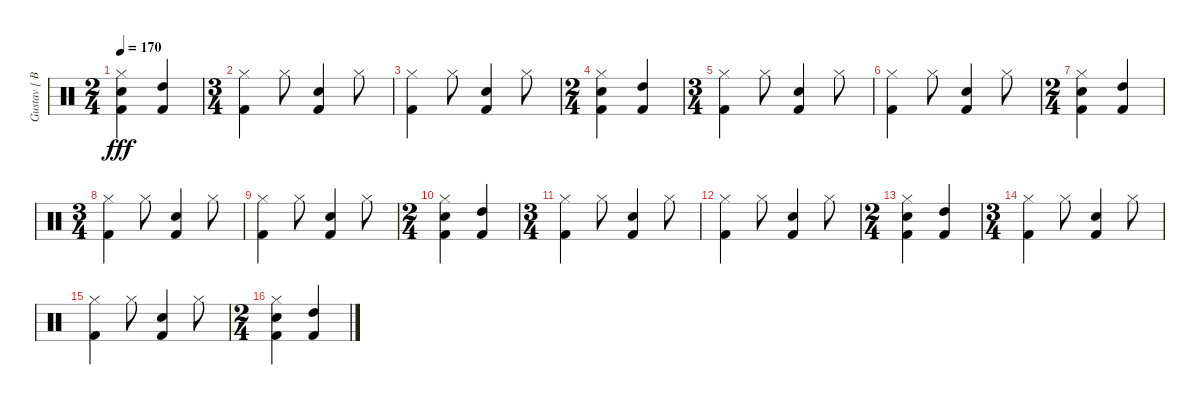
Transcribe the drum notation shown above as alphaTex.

\track ("Gustav [ Batterie ]" "Gustav [ B") {instrument percussion}
\staff {score}
\articulation defaults
\ts (2 4)
\tempo 170
\clef neutral
\ks c
("Hi-Hat (closed)" "Snare (hit) 2" "Kick (hit) 2").4{dy fff} ("High Tom (hit)" "Kick (hit) 2").4 |
\ts (3 4)
("Hi-Hat (closed)" "Kick (hit) 2").4 "Hi-Hat (closed)".8 ("Snare (hit) 2" "Kick (hit) 2").4 "Hi-Hat (closed)".8 |
("Hi-Hat (closed)" "Kick (hit) 2").4 "Hi-Hat (closed)".8 ("Snare (hit) 2" "Kick (hit) 2").4 "Hi-Hat (closed)".8 |
\ts (2 4)
("Hi-Hat (closed)" "Snare (hit) 2" "Kick (hit) 2").4 ("High Tom (hit)" "Kick (hit) 2").4 |
\ts (3 4)
("Hi-Hat (closed)" "Kick (hit) 2").4 "Hi-Hat (closed)".8 ("Snare (hit) 2" "Kick (hit) 2").4 "Hi-Hat (closed)".8 |
("Hi-Hat (closed)" "Kick (hit) 2").4 "Hi-Hat (closed)".8 ("Snare (hit) 2" "Kick (hit) 2").4 "Hi-Hat (closed)".8 |
\ts (2 4)
("Hi-Hat (closed)" "Snare (hit) 2" "Kick (hit) 2").4 ("High Tom (hit)" "Kick (hit) 2").4 |
\ts (3 4)
("Hi-Hat (closed)" "Kick (hit) 2").4 "Hi-Hat (closed)".8 ("Snare (hit) 2" "Kick (hit) 2").4 "Hi-Hat (closed)".8 |
("Hi-Hat (closed)" "Kick (hit) 2").4 "Hi-Hat (closed)".8 ("Snare (hit) 2" "Kick (hit) 2").4 "Hi-Hat (closed)".8 |
\ts (2 4)
("Hi-Hat (closed)" "Snare (hit) 2" "Kick (hit) 2").4 ("High Tom (hit)" "Kick (hit) 2").4 |
\ts (3 4)
("Hi-Hat (closed)" "Kick (hit) 2").4{volume 14} "Hi-Hat (closed)".8 ("Snare (hit) 2" "Kick (hit) 2").4 "Hi-Hat (closed)".8 |
("Hi-Hat (closed)" "Kick (hit) 2").4 "Hi-Hat (closed)".8 ("Snare (hit) 2" "Kick (hit) 2").4 "Hi-Hat (closed)".8 |
\ts (2 4)
("Hi-Hat (closed)" "Snare (hit) 2" "Kick (hit) 2").4 ("High Tom (hit)" "Kick (hit) 2").4 |
\ts (3 4)
("Hi-Hat (closed)" "Kick (hit) 2").4 "Hi-Hat (closed)".8 ("Snare (hit) 2" "Kick (hit) 2").4 "Hi-Hat (closed)".8 |
("Hi-Hat (closed)" "Kick (hit) 2").4 "Hi-Hat (closed)".8 ("Snare (hit) 2" "Kick (hit) 2").4 "Hi-Hat (closed)".8 |
\ts (2 4)
("Hi-Hat (closed)" "Snare (hit) 2" "Kick (hit) 2").4 ("High Tom (hit)" "Kick (hit) 2").4
